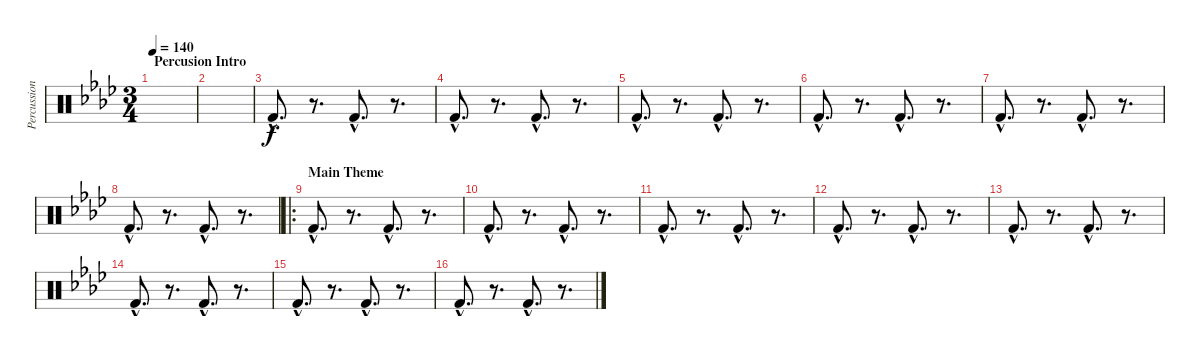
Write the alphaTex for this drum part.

\track ("Percussion" "Percussion") {instrument percussion}
\staff {score}
\articulation defaults
\ts (3 4)
\section ("" "Percusion Intro")
\tempo 140
\clef neutral
\ks fminor
|
|
"Kick (hit) 2"{hac}.8{d} r.8{d} "Kick (hit) 2"{hac}.8{d} r.8{d} |
"Kick (hit) 2"{hac}.8{d} r.8{d} "Kick (hit) 2"{hac}.8{d} r.8{d} |
"Kick (hit) 2"{hac}.8{d} r.8{d} "Kick (hit) 2"{hac}.8{d} r.8{d} |
"Kick (hit) 2"{hac}.8{d} r.8{d} "Kick (hit) 2"{hac}.8{d} r.8{d} |
"Kick (hit) 2"{hac}.8{d} r.8{d} "Kick (hit) 2"{hac}.8{d} r.8{d} |
"Kick (hit) 2"{hac}.8{d} r.8{d} "Kick (hit) 2"{hac}.8{d} r.8{d} |
\ro
\section ("" "Main Theme")
"Kick (hit) 2"{hac}.8{d} r.8{d} "Kick (hit) 2"{hac}.8{d} r.8{d} |
"Kick (hit) 2"{hac}.8{d} r.8{d} "Kick (hit) 2"{hac}.8{d} r.8{d} |
"Kick (hit) 2"{hac}.8{d} r.8{d} "Kick (hit) 2"{hac}.8{d} r.8{d} |
"Kick (hit) 2"{hac}.8{d} r.8{d} "Kick (hit) 2"{hac}.8{d} r.8{d} |
"Kick (hit) 2"{hac}.8{d} r.8{d} "Kick (hit) 2"{hac}.8{d} r.8{d} |
"Kick (hit) 2"{hac}.8{d} r.8{d} "Kick (hit) 2"{hac}.8{d} r.8{d} |
"Kick (hit) 2"{hac}.8{d} r.8{d} "Kick (hit) 2"{hac}.8{d} r.8{d} |
"Kick (hit) 2"{hac}.8{d} r.8{d} "Kick (hit) 2"{hac}.8{d} r.8{d}
